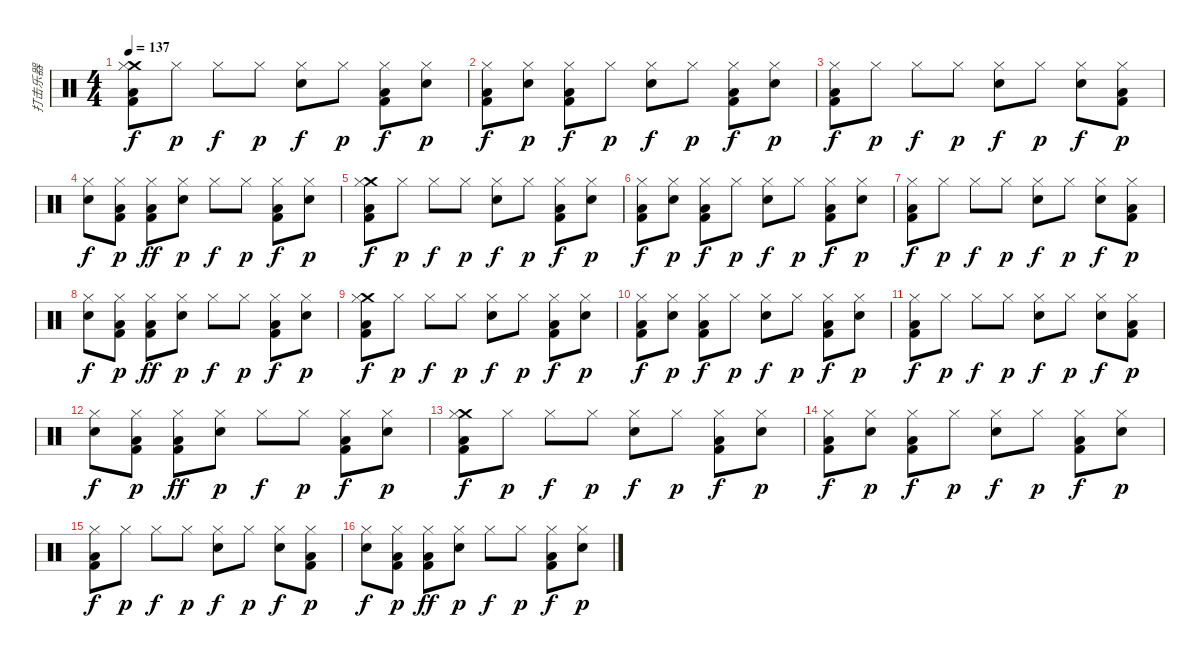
\track ("打击乐器" "打击乐器") {instrument percussion}
\staff {score}
\articulation defaults
\ts (4 4)
\tempo 137
\clef neutral
\ks c
("Low Floor Tom (hit)" "Kick (hit) 2" "Crash medium (hit)" "Hi-Hat (closed)").8{dy f} "Hi-Hat (closed)".8{dy p} "Hi-Hat (closed)".8{dy f} "Hi-Hat (closed)".8{dy p} ("Electric Snare (hit)" "Hi-Hat (closed)").8{dy f} "Hi-Hat (closed)".8{dy p} ("Low Floor Tom (hit)" "Kick (hit) 2" "Hi-Hat (closed)").8{dy f} ("Electric Snare (hit)" "Hi-Hat (closed)").8{dy p} |
("Low Floor Tom (hit)" "Kick (hit) 2" "Hi-Hat (closed)").8{dy f} ("Electric Snare (hit)" "Hi-Hat (closed)").8{dy p} ("Low Floor Tom (hit)" "Kick (hit) 2" "Hi-Hat (closed)").8{dy f} "Hi-Hat (closed)".8{dy p} ("Electric Snare (hit)" "Hi-Hat (closed)").8{dy f} "Hi-Hat (closed)".8{dy p} ("Low Floor Tom (hit)" "Kick (hit) 2" "Hi-Hat (closed)").8{dy f} ("Electric Snare (hit)" "Hi-Hat (closed)").8{dy p} |
("Low Floor Tom (hit)" "Kick (hit) 2" "Hi-Hat (closed)").8{dy f} "Hi-Hat (closed)".8{dy p} "Hi-Hat (closed)".8{dy f} "Hi-Hat (closed)".8{dy p} ("Electric Snare (hit)" "Hi-Hat (closed)").8{dy f} "Hi-Hat (closed)".8{dy p} ("Electric Snare (hit)" "Hi-Hat (closed)").8{dy f} ("Low Floor Tom (hit)" "Kick (hit) 2" "Hi-Hat (closed)").8{dy p} |
("Electric Snare (hit)" "Hi-Hat (closed)").8{dy f} ("Low Floor Tom (hit)" "Kick (hit) 2" "Hi-Hat (closed)").8{dy p} ("Low Floor Tom (hit)" "Kick (hit) 2" "Hi-Hat (closed)").8{dy ff} ("Electric Snare (hit)" "Hi-Hat (closed)").8{dy p} "Hi-Hat (closed)".8{dy f} "Hi-Hat (closed)".8{dy p} ("Low Floor Tom (hit)" "Kick (hit) 2" "Hi-Hat (closed)").8{dy f} ("Electric Snare (hit)" "Hi-Hat (closed)").8{dy p} |
("Low Floor Tom (hit)" "Kick (hit) 2" "Crash medium (hit)" "Hi-Hat (closed)").8{dy f} "Hi-Hat (closed)".8{dy p} "Hi-Hat (closed)".8{dy f} "Hi-Hat (closed)".8{dy p} ("Electric Snare (hit)" "Hi-Hat (closed)").8{dy f} "Hi-Hat (closed)".8{dy p} ("Low Floor Tom (hit)" "Kick (hit) 2" "Hi-Hat (closed)").8{dy f} ("Electric Snare (hit)" "Hi-Hat (closed)").8{dy p} |
("Low Floor Tom (hit)" "Kick (hit) 2" "Hi-Hat (closed)").8{dy f} ("Electric Snare (hit)" "Hi-Hat (closed)").8{dy p} ("Low Floor Tom (hit)" "Kick (hit) 2" "Hi-Hat (closed)").8{dy f} "Hi-Hat (closed)".8{dy p} ("Electric Snare (hit)" "Hi-Hat (closed)").8{dy f} "Hi-Hat (closed)".8{dy p} ("Low Floor Tom (hit)" "Kick (hit) 2" "Hi-Hat (closed)").8{dy f} ("Electric Snare (hit)" "Hi-Hat (closed)").8{dy p} |
("Low Floor Tom (hit)" "Kick (hit) 2" "Hi-Hat (closed)").8{dy f} "Hi-Hat (closed)".8{dy p} "Hi-Hat (closed)".8{dy f} "Hi-Hat (closed)".8{dy p} ("Electric Snare (hit)" "Hi-Hat (closed)").8{dy f} "Hi-Hat (closed)".8{dy p} ("Electric Snare (hit)" "Hi-Hat (closed)").8{dy f} ("Low Floor Tom (hit)" "Kick (hit) 2" "Hi-Hat (closed)").8{dy p} |
("Electric Snare (hit)" "Hi-Hat (closed)").8{dy f} ("Low Floor Tom (hit)" "Kick (hit) 2" "Hi-Hat (closed)").8{dy p} ("Low Floor Tom (hit)" "Kick (hit) 2" "Hi-Hat (closed)").8{dy ff} ("Electric Snare (hit)" "Hi-Hat (closed)").8{dy p} "Hi-Hat (closed)".8{dy f} "Hi-Hat (closed)".8{dy p} ("Low Floor Tom (hit)" "Kick (hit) 2" "Hi-Hat (closed)").8{dy f} ("Electric Snare (hit)" "Hi-Hat (closed)").8{dy p} |
("Low Floor Tom (hit)" "Kick (hit) 2" "Crash medium (hit)" "Hi-Hat (closed)").8{dy f} "Hi-Hat (closed)".8{dy p} "Hi-Hat (closed)".8{dy f} "Hi-Hat (closed)".8{dy p} ("Electric Snare (hit)" "Hi-Hat (closed)").8{dy f} "Hi-Hat (closed)".8{dy p} ("Low Floor Tom (hit)" "Kick (hit) 2" "Hi-Hat (closed)").8{dy f} ("Electric Snare (hit)" "Hi-Hat (closed)").8{dy p} |
("Low Floor Tom (hit)" "Kick (hit) 2" "Hi-Hat (closed)").8{dy f} ("Electric Snare (hit)" "Hi-Hat (closed)").8{dy p} ("Low Floor Tom (hit)" "Kick (hit) 2" "Hi-Hat (closed)").8{dy f} "Hi-Hat (closed)".8{dy p} ("Electric Snare (hit)" "Hi-Hat (closed)").8{dy f} "Hi-Hat (closed)".8{dy p} ("Low Floor Tom (hit)" "Kick (hit) 2" "Hi-Hat (closed)").8{dy f} ("Electric Snare (hit)" "Hi-Hat (closed)").8{dy p} |
("Low Floor Tom (hit)" "Kick (hit) 2" "Hi-Hat (closed)").8{dy f} "Hi-Hat (closed)".8{dy p} "Hi-Hat (closed)".8{dy f} "Hi-Hat (closed)".8{dy p} ("Electric Snare (hit)" "Hi-Hat (closed)").8{dy f} "Hi-Hat (closed)".8{dy p} ("Electric Snare (hit)" "Hi-Hat (closed)").8{dy f} ("Low Floor Tom (hit)" "Kick (hit) 2" "Hi-Hat (closed)").8{dy p} |
("Electric Snare (hit)" "Hi-Hat (closed)").8{dy f} ("Low Floor Tom (hit)" "Kick (hit) 2" "Hi-Hat (closed)").8{dy p} ("Low Floor Tom (hit)" "Kick (hit) 2" "Hi-Hat (closed)").8{dy ff} ("Electric Snare (hit)" "Hi-Hat (closed)").8{dy p} "Hi-Hat (closed)".8{dy f} "Hi-Hat (closed)".8{dy p} ("Low Floor Tom (hit)" "Kick (hit) 2" "Hi-Hat (closed)").8{dy f} ("Electric Snare (hit)" "Hi-Hat (closed)").8{dy p} |
("Low Floor Tom (hit)" "Kick (hit) 2" "Crash medium (hit)" "Hi-Hat (closed)").8{dy f} "Hi-Hat (closed)".8{dy p} "Hi-Hat (closed)".8{dy f} "Hi-Hat (closed)".8{dy p} ("Electric Snare (hit)" "Hi-Hat (closed)").8{dy f} "Hi-Hat (closed)".8{dy p} ("Low Floor Tom (hit)" "Kick (hit) 2" "Hi-Hat (closed)").8{dy f} ("Electric Snare (hit)" "Hi-Hat (closed)").8{dy p} |
("Low Floor Tom (hit)" "Kick (hit) 2" "Hi-Hat (closed)").8{dy f} ("Electric Snare (hit)" "Hi-Hat (closed)").8{dy p} ("Low Floor Tom (hit)" "Kick (hit) 2" "Hi-Hat (closed)").8{dy f} "Hi-Hat (closed)".8{dy p} ("Electric Snare (hit)" "Hi-Hat (closed)").8{dy f} "Hi-Hat (closed)".8{dy p} ("Low Floor Tom (hit)" "Kick (hit) 2" "Hi-Hat (closed)").8{dy f} ("Electric Snare (hit)" "Hi-Hat (closed)").8{dy p} |
("Low Floor Tom (hit)" "Kick (hit) 2" "Hi-Hat (closed)").8{dy f} "Hi-Hat (closed)".8{dy p} "Hi-Hat (closed)".8{dy f} "Hi-Hat (closed)".8{dy p} ("Electric Snare (hit)" "Hi-Hat (closed)").8{dy f} "Hi-Hat (closed)".8{dy p} ("Electric Snare (hit)" "Hi-Hat (closed)").8{dy f} ("Low Floor Tom (hit)" "Kick (hit) 2" "Hi-Hat (closed)").8{dy p} |
("Electric Snare (hit)" "Hi-Hat (closed)").8{dy f} ("Low Floor Tom (hit)" "Kick (hit) 2" "Hi-Hat (closed)").8{dy p} ("Low Floor Tom (hit)" "Kick (hit) 2" "Hi-Hat (closed)").8{dy ff} ("Electric Snare (hit)" "Hi-Hat (closed)").8{dy p} "Hi-Hat (closed)".8{dy f} "Hi-Hat (closed)".8{dy p} ("Low Floor Tom (hit)" "Kick (hit) 2" "Hi-Hat (closed)").8{dy f} ("Electric Snare (hit)" "Hi-Hat (closed)").8{dy p}
